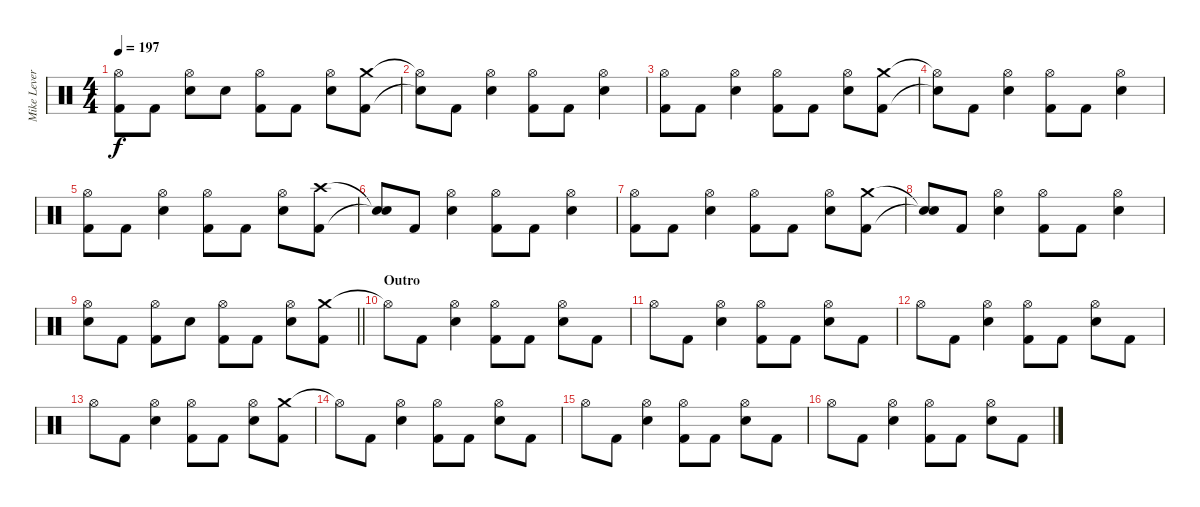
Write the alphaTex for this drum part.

\track ("Mike Leverence - Drums" "Mike Lever") {instrument percussion}
\staff {score}
\articulation defaults
\ts (4 4)
\tempo 197
\clef neutral
\ks c
("Hi-Hat (open)" "Kick (hit) 2").8{dy f} "Kick (hit) 2".8 ("Hi-Hat (open)" "Electric Snare (hit)").8 "Electric Snare (hit)".8 ("Hi-Hat (open)" "Kick (hit) 2").8 "Kick (hit) 2".8 ("Hi-Hat (open)" "Electric Snare (hit)").8 ("Crash medium (hit)" "Kick (hit) 2").8 |
("Hi-Hat (open)"{t} "Snare (hit)"{t}).8 "Kick (hit) 2".8 ("Hi-Hat (open)" "Electric Snare (hit)").4 ("Hi-Hat (open)" "Kick (hit) 2").8 "Kick (hit) 2".8 ("Hi-Hat (open)" "Electric Snare (hit)").4 |
("Hi-Hat (open)" "Kick (hit) 2").8 "Kick (hit) 2".8 ("Hi-Hat (open)" "Electric Snare (hit)").4 ("Hi-Hat (open)" "Kick (hit) 2").8 "Kick (hit) 2".8 ("Hi-Hat (open)" "Electric Snare (hit)").8 ("Crash medium (hit)" "Kick (hit) 2").8 |
("Hi-Hat (open)"{t} "Snare (hit)"{t}).8 "Kick (hit) 2".8 ("Hi-Hat (open)" "Electric Snare (hit)").4 ("Hi-Hat (open)" "Kick (hit) 2").8 "Kick (hit) 2".8 ("Hi-Hat (open)" "Electric Snare (hit)").4 |
("Hi-Hat (open)" "Kick (hit) 2").8 "Kick (hit) 2".8 ("Hi-Hat (open)" "Electric Snare (hit)").4 ("Hi-Hat (open)" "Kick (hit) 2").8 "Kick (hit) 2".8 ("Hi-Hat (open)" "Electric Snare (hit)").8 ("Crash high (hit)" "Kick (hit) 2").8 |
("Snare (hit)"{t} "Snare (hit)"{t}).8 "Kick (hit) 2".8 ("Hi-Hat (open)" "Electric Snare (hit)").4 ("Hi-Hat (open)" "Kick (hit) 2").8 "Kick (hit) 2".8 ("Hi-Hat (open)" "Electric Snare (hit)").4 |
("Hi-Hat (open)" "Kick (hit) 2").8 "Kick (hit) 2".8 ("Hi-Hat (open)" "Electric Snare (hit)").4 ("Hi-Hat (open)" "Kick (hit) 2").8 "Kick (hit) 2".8 ("Hi-Hat (open)" "Electric Snare (hit)").8 ("Crash medium (hit)" "Kick (hit) 2").8 |
("Snare (hit)"{t} "Snare (hit)"{t}).8 "Kick (hit) 2".8 ("Hi-Hat (open)" "Electric Snare (hit)").4 ("Hi-Hat (open)" "Kick (hit) 2").8 "Kick (hit) 2".8 ("Hi-Hat (open)" "Electric Snare (hit)").4 |
\barLineRight lightlight
("Hi-Hat (open)" "Electric Snare (hit)").8 "Kick (hit) 2".8 ("Hi-Hat (open)" "Kick (hit) 2").8 "Electric Snare (hit)".8 ("Hi-Hat (open)" "Kick (hit) 2").8 "Kick (hit) 2".8 ("Hi-Hat (open)" "Electric Snare (hit)").8 ("Crash medium (hit)" "Kick (hit) 2").8 |
\section ("" "Outro")
"Hi-Hat (open)"{t}.8 "Kick (hit) 2".8 ("Hi-Hat (open)" "Electric Snare (hit)").4 ("Hi-Hat (open)" "Kick (hit) 2").8 "Kick (hit) 2".8 ("Hi-Hat (open)" "Electric Snare (hit)").8 "Kick (hit) 2".8 |
"Hi-Hat (open)".8 "Kick (hit) 2".8 ("Hi-Hat (open)" "Electric Snare (hit)").4 ("Hi-Hat (open)" "Kick (hit) 2").8 "Kick (hit) 2".8 ("Hi-Hat (open)" "Electric Snare (hit)").8 "Kick (hit) 2".8 |
"Hi-Hat (open)".8 "Kick (hit) 2".8 ("Hi-Hat (open)" "Electric Snare (hit)").4 ("Hi-Hat (open)" "Kick (hit) 2").8 "Kick (hit) 2".8 ("Hi-Hat (open)" "Electric Snare (hit)").8 "Kick (hit) 2".8 |
"Hi-Hat (open)".8 "Kick (hit) 2".8 ("Hi-Hat (open)" "Electric Snare (hit)").4 ("Hi-Hat (open)" "Kick (hit) 2").8 "Kick (hit) 2".8 ("Hi-Hat (open)" "Electric Snare (hit)").8 ("Crash medium (hit)" "Kick (hit) 2").8 |
"Hi-Hat (open)"{t}.8 "Kick (hit) 2".8 ("Hi-Hat (open)" "Electric Snare (hit)").4 ("Hi-Hat (open)" "Kick (hit) 2").8 "Kick (hit) 2".8 ("Hi-Hat (open)" "Electric Snare (hit)").8 "Kick (hit) 2".8 |
"Hi-Hat (open)".8 "Kick (hit) 2".8 ("Hi-Hat (open)" "Electric Snare (hit)").4 ("Hi-Hat (open)" "Kick (hit) 2").8 "Kick (hit) 2".8 ("Hi-Hat (open)" "Electric Snare (hit)").8 "Kick (hit) 2".8 |
"Hi-Hat (open)".8 "Kick (hit) 2".8 ("Hi-Hat (open)" "Electric Snare (hit)").4 ("Hi-Hat (open)" "Kick (hit) 2").8 "Kick (hit) 2".8 ("Hi-Hat (open)" "Electric Snare (hit)").8 "Kick (hit) 2".8
